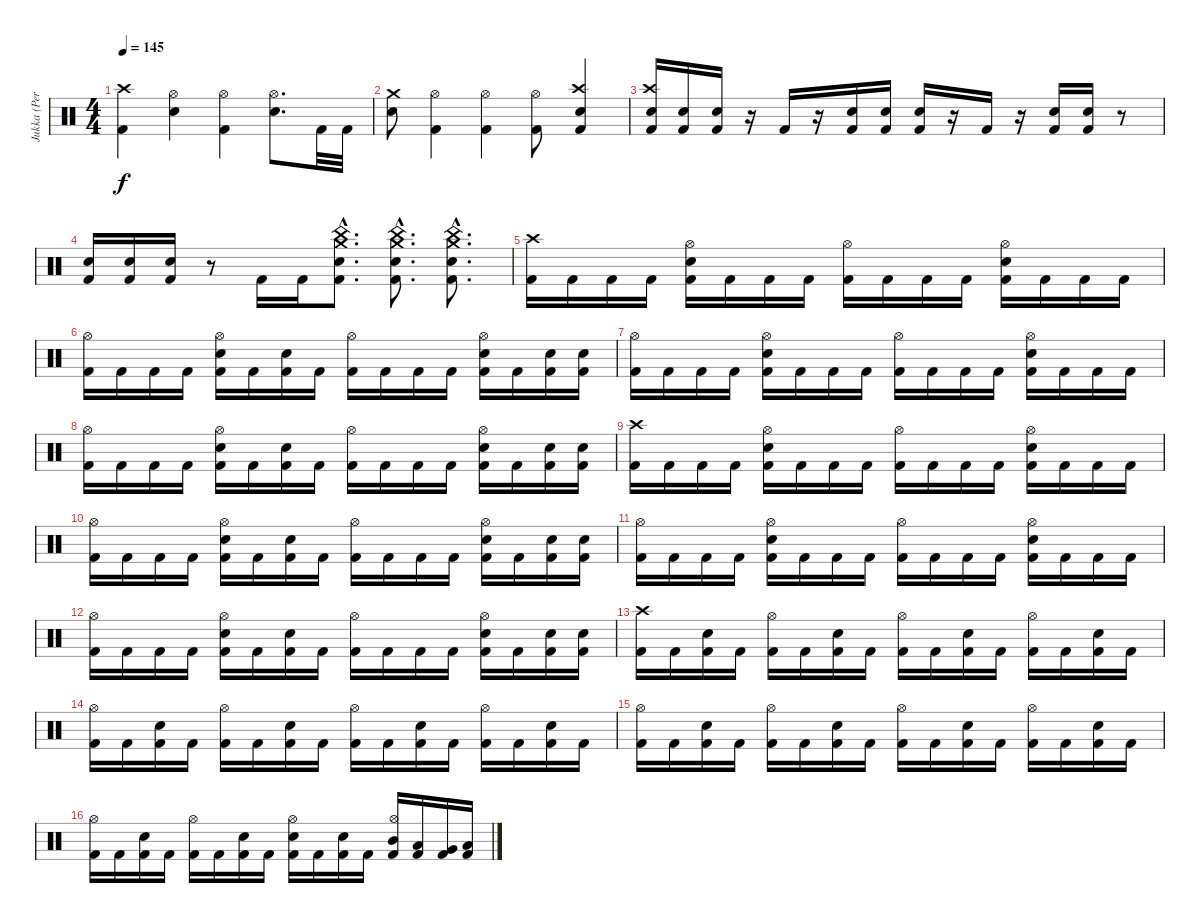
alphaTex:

\track ("Jukka (Percussion)" "Jukka (Per") {instrument percussion}
\staff {score}
\articulation defaults
\ts (4 4)
\tempo 145
\clef neutral
\ks c
("Kick (hit) 2" "Crash high (hit)").4{dy f} ("Electric Snare (hit)" "Hi-Hat (open)").4 ("Kick (hit) 2" "Hi-Hat (open)").4 ("Electric Snare (hit)" "Hi-Hat (open)").8{d} "Kick (hit) 2".32 "Kick (hit) 2".32 |
("Electric Snare (hit)" "Crash medium (hit)").8 ("Kick (hit) 2" "Hi-Hat (open)").4 ("Kick (hit) 2" "Hi-Hat (open)").4 ("Kick (hit) 2" "Hi-Hat (open)").8 ("Kick (hit) 2" "Electric Snare (hit)" "Crash high (hit)").4 |
("Kick (hit) 2" "Electric Snare (hit)" "Crash high (hit)").16 ("Kick (hit) 2" "Electric Snare (hit)").16 ("Kick (hit) 2" "Electric Snare (hit)").16 r.16 "Kick (hit) 2".16 r.16 ("Kick (hit) 2" "Electric Snare (hit)").16 ("Kick (hit) 2" "Electric Snare (hit)").16 ("Kick (hit) 2" "Electric Snare (hit)").16 r.16 "Kick (hit) 2".16 r.16 ("Kick (hit) 2" "Electric Snare (hit)").16 ("Kick (hit) 2" "Electric Snare (hit)").16 r.8 |
("Kick (hit) 2" "Electric Snare (hit)").16 ("Kick (hit) 2" "Electric Snare (hit)").16 ("Kick (hit) 2" "Electric Snare (hit)").16 r.8 "Kick (hit) 2".16 "Kick (hit) 2".16 ("Kick (hit) 2" "Electric Snare (hit)" "China (hit)"{hac} "Crash medium (hit)"{hac}).8{d} ("Kick (hit) 2" "Electric Snare (hit)" "China (hit)"{hac} "Crash medium (hit)"{hac}).8{d} ("Kick (hit) 2" "Electric Snare (hit)" "China (hit)"{hac} "Crash medium (hit)"{hac}).8{d} |
("Kick (hit) 2" "Crash high (hit)").16 "Kick (hit) 2".16 "Kick (hit) 2".16 "Kick (hit) 2".16 ("Kick (hit) 2" "Electric Snare (hit)" "Hi-Hat (open)").16 "Kick (hit) 2".16 "Kick (hit) 2".16 "Kick (hit) 2".16 ("Kick (hit) 2" "Hi-Hat (open)").16 "Kick (hit) 2".16 "Kick (hit) 2".16 "Kick (hit) 2".16 ("Kick (hit) 2" "Electric Snare (hit)" "Hi-Hat (open)").16 "Kick (hit) 2".16 "Kick (hit) 2".16 "Kick (hit) 2".16 |
("Kick (hit) 2" "Hi-Hat (open)").16 "Kick (hit) 2".16 "Kick (hit) 2".16 "Kick (hit) 2".16 ("Kick (hit) 2" "Electric Snare (hit)" "Hi-Hat (open)").16 "Kick (hit) 2".16 ("Kick (hit) 2" "Electric Snare (hit)").16 "Kick (hit) 2".16 ("Kick (hit) 2" "Hi-Hat (open)").16 "Kick (hit) 2".16 "Kick (hit) 2".16 "Kick (hit) 2".16 ("Kick (hit) 2" "Electric Snare (hit)" "Hi-Hat (open)").16 "Kick (hit) 2".16 ("Kick (hit) 2" "Electric Snare (hit)").16 ("Kick (hit) 2" "Electric Snare (hit)").16 |
("Kick (hit) 2" "Hi-Hat (open)").16 "Kick (hit) 2".16 "Kick (hit) 2".16 "Kick (hit) 2".16 ("Kick (hit) 2" "Electric Snare (hit)" "Hi-Hat (open)").16 "Kick (hit) 2".16 "Kick (hit) 2".16 "Kick (hit) 2".16 ("Kick (hit) 2" "Hi-Hat (open)").16 "Kick (hit) 2".16 "Kick (hit) 2".16 "Kick (hit) 2".16 ("Kick (hit) 2" "Electric Snare (hit)" "Hi-Hat (open)").16 "Kick (hit) 2".16 "Kick (hit) 2".16 "Kick (hit) 2".16 |
("Kick (hit) 2" "Hi-Hat (open)").16 "Kick (hit) 2".16 "Kick (hit) 2".16 "Kick (hit) 2".16 ("Kick (hit) 2" "Electric Snare (hit)" "Hi-Hat (open)").16 "Kick (hit) 2".16 ("Kick (hit) 2" "Electric Snare (hit)").16 "Kick (hit) 2".16 ("Kick (hit) 2" "Hi-Hat (open)").16 "Kick (hit) 2".16 "Kick (hit) 2".16 "Kick (hit) 2".16 ("Kick (hit) 2" "Electric Snare (hit)" "Hi-Hat (open)").16 "Kick (hit) 2".16 ("Kick (hit) 2" "Electric Snare (hit)").16 ("Kick (hit) 2" "Electric Snare (hit)").16 |
("Kick (hit) 2" "Crash high (hit)").16 "Kick (hit) 2".16 "Kick (hit) 2".16 "Kick (hit) 2".16 ("Kick (hit) 2" "Electric Snare (hit)" "Hi-Hat (open)").16 "Kick (hit) 2".16 "Kick (hit) 2".16 "Kick (hit) 2".16 ("Kick (hit) 2" "Hi-Hat (open)").16 "Kick (hit) 2".16 "Kick (hit) 2".16 "Kick (hit) 2".16 ("Kick (hit) 2" "Electric Snare (hit)" "Hi-Hat (open)").16 "Kick (hit) 2".16 "Kick (hit) 2".16 "Kick (hit) 2".16 |
("Kick (hit) 2" "Hi-Hat (open)").16 "Kick (hit) 2".16 "Kick (hit) 2".16 "Kick (hit) 2".16 ("Kick (hit) 2" "Electric Snare (hit)" "Hi-Hat (open)").16 "Kick (hit) 2".16 ("Kick (hit) 2" "Electric Snare (hit)").16 "Kick (hit) 2".16 ("Kick (hit) 2" "Hi-Hat (open)").16 "Kick (hit) 2".16 "Kick (hit) 2".16 "Kick (hit) 2".16 ("Kick (hit) 2" "Electric Snare (hit)" "Hi-Hat (open)").16 "Kick (hit) 2".16 ("Kick (hit) 2" "Electric Snare (hit)").16 ("Kick (hit) 2" "Electric Snare (hit)").16 |
("Kick (hit) 2" "Hi-Hat (open)").16 "Kick (hit) 2".16 "Kick (hit) 2".16 "Kick (hit) 2".16 ("Kick (hit) 2" "Electric Snare (hit)" "Hi-Hat (open)").16 "Kick (hit) 2".16 "Kick (hit) 2".16 "Kick (hit) 2".16 ("Kick (hit) 2" "Hi-Hat (open)").16 "Kick (hit) 2".16 "Kick (hit) 2".16 "Kick (hit) 2".16 ("Kick (hit) 2" "Electric Snare (hit)" "Hi-Hat (open)").16 "Kick (hit) 2".16 "Kick (hit) 2".16 "Kick (hit) 2".16 |
("Kick (hit) 2" "Hi-Hat (open)").16 "Kick (hit) 2".16 "Kick (hit) 2".16 "Kick (hit) 2".16 ("Kick (hit) 2" "Electric Snare (hit)" "Hi-Hat (open)").16 "Kick (hit) 2".16 ("Kick (hit) 2" "Electric Snare (hit)").16 "Kick (hit) 2".16 ("Kick (hit) 2" "Hi-Hat (open)").16 "Kick (hit) 2".16 "Kick (hit) 2".16 "Kick (hit) 2".16 ("Kick (hit) 2" "Electric Snare (hit)" "Hi-Hat (open)").16 "Kick (hit) 2".16 ("Kick (hit) 2" "Electric Snare (hit)").16 ("Kick (hit) 2" "Electric Snare (hit)").16 |
("Kick (hit) 2" "Crash high (hit)").16 "Kick (hit) 2".16 ("Kick (hit) 2" "Electric Snare (hit)").16 "Kick (hit) 2".16 ("Kick (hit) 2" "Hi-Hat (open)").16 "Kick (hit) 2".16 ("Kick (hit) 2" "Electric Snare (hit)").16 "Kick (hit) 2".16 ("Kick (hit) 2" "Hi-Hat (open)").16 "Kick (hit) 2".16 ("Kick (hit) 2" "Electric Snare (hit)").16 "Kick (hit) 2".16 ("Kick (hit) 2" "Hi-Hat (open)").16 "Kick (hit) 2".16 ("Kick (hit) 2" "Electric Snare (hit)").16 "Kick (hit) 2".16 |
("Kick (hit) 2" "Hi-Hat (open)").16 "Kick (hit) 2".16 ("Kick (hit) 2" "Electric Snare (hit)").16 "Kick (hit) 2".16 ("Kick (hit) 2" "Hi-Hat (open)").16 "Kick (hit) 2".16 ("Kick (hit) 2" "Electric Snare (hit)").16 "Kick (hit) 2".16 ("Kick (hit) 2" "Hi-Hat (open)").16 "Kick (hit) 2".16 ("Kick (hit) 2" "Electric Snare (hit)").16 "Kick (hit) 2".16 ("Kick (hit) 2" "Hi-Hat (open)").16 "Kick (hit) 2".16 ("Kick (hit) 2" "Electric Snare (hit)").16 "Kick (hit) 2".16 |
("Kick (hit) 2" "Hi-Hat (open)").16 "Kick (hit) 2".16 ("Kick (hit) 2" "Electric Snare (hit)").16 "Kick (hit) 2".16 ("Kick (hit) 2" "Hi-Hat (open)").16 "Kick (hit) 2".16 ("Kick (hit) 2" "Electric Snare (hit)").16 "Kick (hit) 2".16 ("Kick (hit) 2" "Hi-Hat (open)").16 "Kick (hit) 2".16 ("Kick (hit) 2" "Electric Snare (hit)").16 "Kick (hit) 2".16 ("Kick (hit) 2" "Hi-Hat (open)").16 "Kick (hit) 2".16 ("Kick (hit) 2" "Electric Snare (hit)").16 "Kick (hit) 2".16 |
("Kick (hit) 2" "Hi-Hat (open)").16 "Kick (hit) 2".16 ("Kick (hit) 2" "Electric Snare (hit)").16 "Kick (hit) 2".16 ("Kick (hit) 2" "Hi-Hat (open)").16 "Kick (hit) 2".16 ("Kick (hit) 2" "Electric Snare (hit)").16 "Kick (hit) 2".16 ("Kick (hit) 2" "Electric Snare (hit)" "Hi-Hat (open)").16 "Kick (hit) 2".16 ("Kick (hit) 2" "Electric Snare (hit)").16 "Kick (hit) 2".16 ("Kick (hit) 2" "Hi-Hat (open)" "Mid Tom (hit)").16 ("Kick (hit) 2" "Low Tom (hit)").16 ("Kick (hit) 2" "Very Low Tom (hit)").16 ("Kick (hit) 2" "Low Floor Tom (hit)").16
